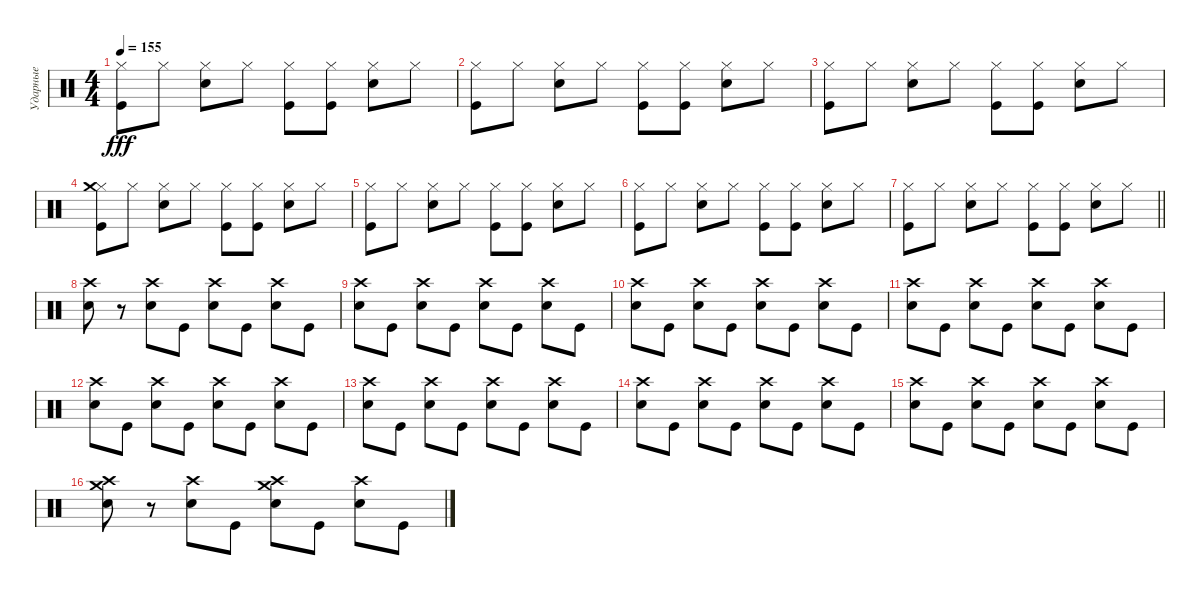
\track ("Ударные" "Ударные") {instrument percussion}
\staff {score}
\articulation defaults
\ts (4 4)
\tempo 155
\clef neutral
\ks c
("Hi-Hat (closed)" "Kick (hit)").8{dy fff} "Hi-Hat (closed)".8 ("Hi-Hat (closed)" "Electric Snare (hit)").8 "Hi-Hat (closed)".8 ("Hi-Hat (closed)" "Kick (hit)").8 ("Hi-Hat (closed)" "Kick (hit)").8 ("Hi-Hat (closed)" "Electric Snare (hit)").8 "Hi-Hat (closed)".8 |
("Hi-Hat (closed)" "Kick (hit)").8 "Hi-Hat (closed)".8 ("Hi-Hat (closed)" "Electric Snare (hit)").8 "Hi-Hat (closed)".8 ("Hi-Hat (closed)" "Kick (hit)").8 ("Hi-Hat (closed)" "Kick (hit)").8 ("Hi-Hat (closed)" "Electric Snare (hit)").8 "Hi-Hat (closed)".8 |
("Hi-Hat (closed)" "Kick (hit)").8 "Hi-Hat (closed)".8 ("Hi-Hat (closed)" "Electric Snare (hit)").8 "Hi-Hat (closed)".8 ("Hi-Hat (closed)" "Kick (hit)").8 ("Hi-Hat (closed)" "Kick (hit)").8 ("Hi-Hat (closed)" "Electric Snare (hit)").8 "Hi-Hat (closed)".8 |
("Hi-Hat (closed)" "Kick (hit)" "Crash medium (hit)").8 "Hi-Hat (closed)".8 ("Hi-Hat (closed)" "Electric Snare (hit)").8 "Hi-Hat (closed)".8 ("Hi-Hat (closed)" "Kick (hit)").8 ("Hi-Hat (closed)" "Kick (hit)").8 ("Hi-Hat (closed)" "Electric Snare (hit)").8 "Hi-Hat (closed)".8 |
("Hi-Hat (closed)" "Kick (hit)").8 "Hi-Hat (closed)".8 ("Hi-Hat (closed)" "Electric Snare (hit)").8 "Hi-Hat (closed)".8 ("Hi-Hat (closed)" "Kick (hit)").8 ("Hi-Hat (closed)" "Kick (hit)").8 ("Hi-Hat (closed)" "Electric Snare (hit)").8 "Hi-Hat (closed)".8 |
("Hi-Hat (closed)" "Kick (hit)").8 "Hi-Hat (closed)".8 ("Hi-Hat (closed)" "Electric Snare (hit)").8 "Hi-Hat (closed)".8 ("Hi-Hat (closed)" "Kick (hit)").8 ("Hi-Hat (closed)" "Kick (hit)").8 ("Hi-Hat (closed)" "Electric Snare (hit)").8 "Hi-Hat (closed)".8 |
\barLineRight lightlight
("Hi-Hat (closed)" "Kick (hit)").8 "Hi-Hat (closed)".8 ("Hi-Hat (closed)" "Electric Snare (hit)").8 "Hi-Hat (closed)".8 ("Hi-Hat (closed)" "Kick (hit)").8 ("Hi-Hat (closed)" "Kick (hit)").8 ("Hi-Hat (closed)" "Electric Snare (hit)").8 "Hi-Hat (closed)".8 |
\section ("" " ")
("Electric Snare (hit)" "Crash high (hit)").8 r.8 ("Electric Snare (hit)" "Crash high (hit)").8 "Kick (hit)".8 ("Electric Snare (hit)" "Crash high (hit)").8 "Kick (hit)".8 ("Electric Snare (hit)" "Crash high (hit)").8 "Kick (hit)".8 |
("Electric Snare (hit)" "Crash high (hit)").8 "Kick (hit)".8 ("Electric Snare (hit)" "Crash high (hit)").8 "Kick (hit)".8 ("Electric Snare (hit)" "Crash high (hit)").8 "Kick (hit)".8 ("Electric Snare (hit)" "Crash high (hit)").8 "Kick (hit)".8 |
("Electric Snare (hit)" "Crash high (hit)").8 "Kick (hit)".8 ("Electric Snare (hit)" "Crash high (hit)").8 "Kick (hit)".8 ("Electric Snare (hit)" "Crash high (hit)").8 "Kick (hit)".8 ("Electric Snare (hit)" "Crash high (hit)").8 "Kick (hit)".8 |
("Electric Snare (hit)" "Crash high (hit)").8 "Kick (hit)".8 ("Electric Snare (hit)" "Crash high (hit)").8 "Kick (hit)".8 ("Electric Snare (hit)" "Crash high (hit)").8 "Kick (hit)".8 ("Electric Snare (hit)" "Crash high (hit)").8 "Kick (hit)".8 |
("Electric Snare (hit)" "Crash high (hit)").8 "Kick (hit)".8 ("Electric Snare (hit)" "Crash high (hit)").8 "Kick (hit)".8 ("Electric Snare (hit)" "Crash high (hit)").8 "Kick (hit)".8 ("Electric Snare (hit)" "Crash high (hit)").8 "Kick (hit)".8 |
("Electric Snare (hit)" "Crash high (hit)").8 "Kick (hit)".8 ("Electric Snare (hit)" "Crash high (hit)").8 "Kick (hit)".8 ("Electric Snare (hit)" "Crash high (hit)").8 "Kick (hit)".8 ("Electric Snare (hit)" "Crash high (hit)").8 "Kick (hit)".8 |
("Electric Snare (hit)" "Crash high (hit)").8 "Kick (hit)".8 ("Electric Snare (hit)" "Crash high (hit)").8 "Kick (hit)".8 ("Electric Snare (hit)" "Crash high (hit)").8 "Kick (hit)".8 ("Electric Snare (hit)" "Crash high (hit)").8 "Kick (hit)".8 |
("Electric Snare (hit)" "Crash high (hit)").8 "Kick (hit)".8 ("Electric Snare (hit)" "Crash high (hit)").8 "Kick (hit)".8 ("Electric Snare (hit)" "Crash high (hit)").8 "Kick (hit)".8 ("Electric Snare (hit)" "Crash high (hit)").8 "Kick (hit)".8 |
("Electric Snare (hit)" "Crash high (hit)" "Crash medium (hit)").8 r.8 ("Electric Snare (hit)" "Crash high (hit)").8 "Kick (hit)".8 ("Electric Snare (hit)" "Crash high (hit)" "Crash medium (hit)").8 "Kick (hit)".8 ("Electric Snare (hit)" "Crash high (hit)").8 "Kick (hit)".8
